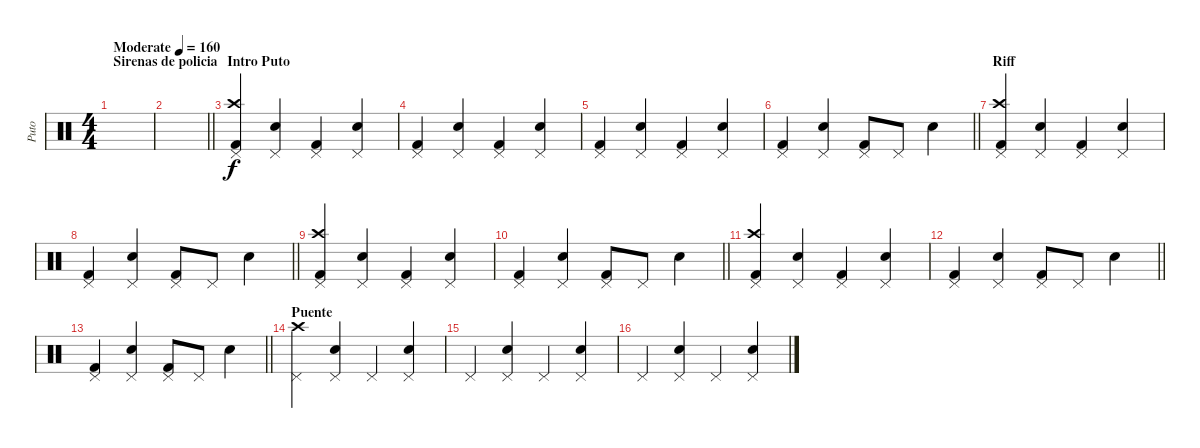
\track ("Puto" "Puto") {instrument percussion}
\staff {score}
\articulation defaults
\ts (4 4)
\section ("" "Sirenas de policia")
\tempo (160 "Moderate")
\clef neutral
\ks c
|
\barLineRight lightlight
|
\section ("" "Intro Puto")
("Kick (hit) 2" "Crash high (hit)" "Pedal Hi-Hat (hit)").4 ("Snare (hit) 2" "Pedal Hi-Hat (hit)").4 ("Kick (hit) 2" "Pedal Hi-Hat (hit)").4 ("Snare (hit) 2" "Pedal Hi-Hat (hit)").4 |
("Kick (hit) 2" "Pedal Hi-Hat (hit)").4 ("Snare (hit) 2" "Pedal Hi-Hat (hit)").4 ("Kick (hit) 2" "Pedal Hi-Hat (hit)").4 ("Snare (hit) 2" "Pedal Hi-Hat (hit)").4 |
("Kick (hit) 2" "Pedal Hi-Hat (hit)").4 ("Snare (hit) 2" "Pedal Hi-Hat (hit)").4 ("Kick (hit) 2" "Pedal Hi-Hat (hit)").4 ("Snare (hit) 2" "Pedal Hi-Hat (hit)").4 |
\barLineRight lightlight
("Kick (hit) 2" "Pedal Hi-Hat (hit)").4 ("Snare (hit) 2" "Pedal Hi-Hat (hit)").4 ("Kick (hit) 2" "Pedal Hi-Hat (hit)").8 "Pedal Hi-Hat (hit)".8 "Snare (hit) 2".4 |
\section ("" "Riff")
("Kick (hit) 2" "Crash high (hit)" "Pedal Hi-Hat (hit)").4 ("Snare (hit) 2" "Pedal Hi-Hat (hit)").4 ("Kick (hit) 2" "Pedal Hi-Hat (hit)").4 ("Snare (hit) 2" "Pedal Hi-Hat (hit)").4 |
\barLineRight lightlight
("Kick (hit) 2" "Pedal Hi-Hat (hit)").4 ("Snare (hit) 2" "Pedal Hi-Hat (hit)").4 ("Kick (hit) 2" "Pedal Hi-Hat (hit)").8 "Pedal Hi-Hat (hit)".8 "Snare (hit) 2".4 |
("Kick (hit) 2" "Crash high (hit)" "Pedal Hi-Hat (hit)").4 ("Snare (hit) 2" "Pedal Hi-Hat (hit)").4 ("Kick (hit) 2" "Pedal Hi-Hat (hit)").4 ("Snare (hit) 2" "Pedal Hi-Hat (hit)").4 |
\barLineRight lightlight
("Kick (hit) 2" "Pedal Hi-Hat (hit)").4 ("Snare (hit) 2" "Pedal Hi-Hat (hit)").4 ("Kick (hit) 2" "Pedal Hi-Hat (hit)").8 "Pedal Hi-Hat (hit)".8 "Snare (hit) 2".4 |
("Kick (hit) 2" "Crash high (hit)" "Pedal Hi-Hat (hit)").4 ("Snare (hit) 2" "Pedal Hi-Hat (hit)").4 ("Kick (hit) 2" "Pedal Hi-Hat (hit)").4 ("Snare (hit) 2" "Pedal Hi-Hat (hit)").4 |
\barLineRight lightlight
("Kick (hit) 2" "Pedal Hi-Hat (hit)").4 ("Snare (hit) 2" "Pedal Hi-Hat (hit)").4 ("Kick (hit) 2" "Pedal Hi-Hat (hit)").8 "Pedal Hi-Hat (hit)".8 "Snare (hit) 2".4 |
\barLineRight lightlight
("Kick (hit) 2" "Pedal Hi-Hat (hit)").4 ("Snare (hit) 2" "Pedal Hi-Hat (hit)").4 ("Kick (hit) 2" "Pedal Hi-Hat (hit)").8 "Pedal Hi-Hat (hit)".8 "Snare (hit) 2".4 |
\section ("" "Puente")
("Crash high (hit)" "Pedal Hi-Hat (hit)").4 ("Snare (hit) 2" "Pedal Hi-Hat (hit)").4 "Pedal Hi-Hat (hit)".4 ("Snare (hit) 2" "Pedal Hi-Hat (hit)").4 |
"Pedal Hi-Hat (hit)".4 ("Snare (hit) 2" "Pedal Hi-Hat (hit)").4 "Pedal Hi-Hat (hit)".4 ("Snare (hit) 2" "Pedal Hi-Hat (hit)").4 |
"Pedal Hi-Hat (hit)".4 ("Snare (hit) 2" "Pedal Hi-Hat (hit)").4 "Pedal Hi-Hat (hit)".4 ("Snare (hit) 2" "Pedal Hi-Hat (hit)").4
